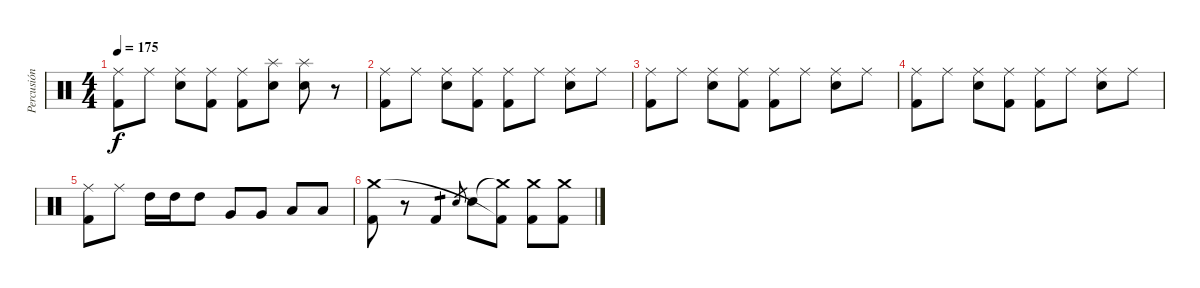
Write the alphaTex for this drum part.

\track ("Percusión" "Percusión") {instrument percussion}
\staff {score}
\articulation defaults
\ts (4 4)
\tempo 175
\clef neutral
\ks c
("Ride (middle)" "Kick (hit) 2").8{dy f} "Ride (middle)".8 ("Ride (middle)" "Electric Snare (hit)").8 ("Ride (middle)" "Kick (hit) 2").8 ("Kick (hit) 2" "Ride (middle)").8 ("Electric Snare (hit)" "Splash (hit)").8 ("Splash (hit)" "Electric Snare (hit)").8 r.8 |
("Ride (middle)" "Kick (hit) 2").8 "Ride (middle)".8 ("Ride (middle)" "Electric Snare (hit)").8 ("Ride (middle)" "Kick (hit) 2").8 ("Kick (hit) 2" "Ride (middle)").8 "Ride (middle)".8 ("Electric Snare (hit)" "Ride (middle)").8 "Ride (middle)".8 |
("Ride (middle)" "Kick (hit) 2").8 "Ride (middle)".8 ("Ride (middle)" "Electric Snare (hit)").8 ("Ride (middle)" "Kick (hit) 2").8 ("Kick (hit) 2" "Ride (middle)").8 "Ride (middle)".8 ("Electric Snare (hit)" "Ride (middle)").8 "Ride (middle)".8 |
("Ride (middle)" "Kick (hit) 2").8 "Ride (middle)".8 ("Ride (middle)" "Electric Snare (hit)").8 ("Ride (middle)" "Kick (hit) 2").8 ("Kick (hit) 2" "Ride (middle)").8 "Ride (middle)".8 ("Electric Snare (hit)" "Ride (middle)").8 "Ride (middle)".8 |
("Ride (middle)" "Kick (hit) 2").8 "Ride (middle)".8 "High Tom (hit)".16 "High Tom (hit)".16 "High Tom (hit)".8 "Very Low Tom (hit)".8 "Very Low Tom (hit)".8 "Low Floor Tom (hit)".8 "Low Floor Tom (hit)".8 |
("Kick (hit) 2" "Crash medium (hit)").8 r.8 "Kick (hit) 2".4{tp 1} "Electric Snare (hit)".8{gr} "Electric Snare (hit)".8 ("Crash medium (hit)"{t} "Kick (hit) 2"{t}).8 ("Kick (hit) 2" "Crash medium (hit)").8 ("Kick (hit) 2" "Crash medium (hit)").8
